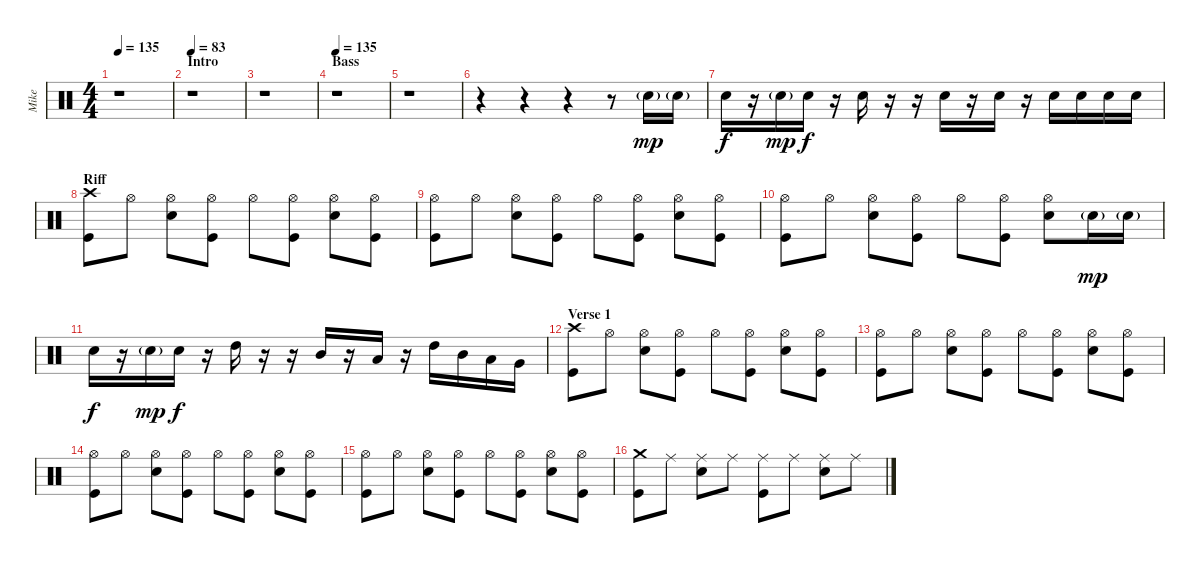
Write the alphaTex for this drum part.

\track ("Mike" "Mike") {instrument percussion}
\staff {score}
\articulation defaults
\ts (4 4)
\tempo 135
\clef neutral
\ks c
r.1{dy mp} |
\section ("" "Intro")
\tempo 83
r.1 |
r.1 |
\section ("" "Bass")
\tempo 135
r.1 |
r.1 |
r.4 r.4 r.4 r.8 "Electric Snare (hit)"{g}.16 "Electric Snare (hit)"{g}.16 |
"Electric Snare (hit)".16{dy f} r.16 "Electric Snare (hit)"{g}.16{dy mp} "Electric Snare (hit)".16{dy f} r.16 "Electric Snare (hit)".16 r.16 r.16 "Electric Snare (hit)".16 r.16 "Electric Snare (hit)".16 r.16 "Electric Snare (hit)".16 "Electric Snare (hit)".16 "Electric Snare (hit)".16 "Electric Snare (hit)".16 |
\section ("" "Riff")
("Crash high (hit)" "Kick (hit)").8 "Hi-Hat (open)".8 ("Hi-Hat (open)" "Electric Snare (hit)").8 ("Hi-Hat (open)" "Kick (hit)").8 "Hi-Hat (open)".8 ("Hi-Hat (open)" "Kick (hit)").8 ("Hi-Hat (open)" "Electric Snare (hit)").8 ("Hi-Hat (open)" "Kick (hit)").8 |
("Hi-Hat (open)" "Kick (hit)").8 "Hi-Hat (open)".8 ("Hi-Hat (open)" "Electric Snare (hit)").8 ("Hi-Hat (open)" "Kick (hit)").8 "Hi-Hat (open)".8 ("Hi-Hat (open)" "Kick (hit)").8 ("Hi-Hat (open)" "Electric Snare (hit)").8 ("Hi-Hat (open)" "Kick (hit)").8 |
("Hi-Hat (open)" "Kick (hit)").8 "Hi-Hat (open)".8 ("Hi-Hat (open)" "Electric Snare (hit)").8 ("Hi-Hat (open)" "Kick (hit)").8 "Hi-Hat (open)".8 ("Hi-Hat (open)" "Kick (hit)").8 ("Hi-Hat (open)" "Electric Snare (hit)").8 "Electric Snare (hit)"{g}.16{dy mp} "Electric Snare (hit)"{g}.16 |
"Electric Snare (hit)".16{dy f} r.16 "Electric Snare (hit)"{g}.16{dy mp} "Electric Snare (hit)".16{dy f} r.16 "High Tom (hit)".16 r.16 r.16 "Mid Tom (hit)".16 r.16 "Low Tom (hit)".16 r.16 "High Tom (hit)".16 "Mid Tom (hit)".16 "Low Tom (hit)".16 "Very Low Tom (hit)".16 |
\section ("" "Verse 1")
("Crash high (hit)" "Kick (hit)").8 "Hi-Hat (open)".8 ("Hi-Hat (open)" "Electric Snare (hit)").8 ("Hi-Hat (open)" "Kick (hit)").8 "Hi-Hat (open)".8 ("Hi-Hat (open)" "Kick (hit)").8 ("Hi-Hat (open)" "Electric Snare (hit)").8 ("Hi-Hat (open)" "Kick (hit)").8 |
("Hi-Hat (open)" "Kick (hit)").8 "Hi-Hat (open)".8 ("Hi-Hat (open)" "Electric Snare (hit)").8 ("Hi-Hat (open)" "Kick (hit)").8 "Hi-Hat (open)".8 ("Hi-Hat (open)" "Kick (hit)").8 ("Hi-Hat (open)" "Electric Snare (hit)").8 ("Hi-Hat (open)" "Kick (hit)").8 |
("Hi-Hat (open)" "Kick (hit)").8 "Hi-Hat (open)".8 ("Hi-Hat (open)" "Electric Snare (hit)").8 ("Hi-Hat (open)" "Kick (hit)").8 "Hi-Hat (open)".8 ("Hi-Hat (open)" "Kick (hit)").8 ("Hi-Hat (open)" "Electric Snare (hit)").8 ("Hi-Hat (open)" "Kick (hit)").8 |
("Hi-Hat (open)" "Kick (hit)").8 "Hi-Hat (open)".8 ("Hi-Hat (open)" "Electric Snare (hit)").8 ("Hi-Hat (open)" "Kick (hit)").8 "Hi-Hat (open)".8 ("Hi-Hat (open)" "Kick (hit)").8 ("Hi-Hat (open)" "Electric Snare (hit)").8 ("Hi-Hat (open)" "Kick (hit)").8 |
("Crash medium (hit)" "Kick (hit)").8 "Ride (middle)".8 ("Ride (middle)" "Electric Snare (hit)").8 "Ride (middle)".8 ("Ride (middle)" "Kick (hit)").8 "Ride (middle)".8 ("Ride (middle)" "Electric Snare (hit)").8 "Ride (middle)".8
